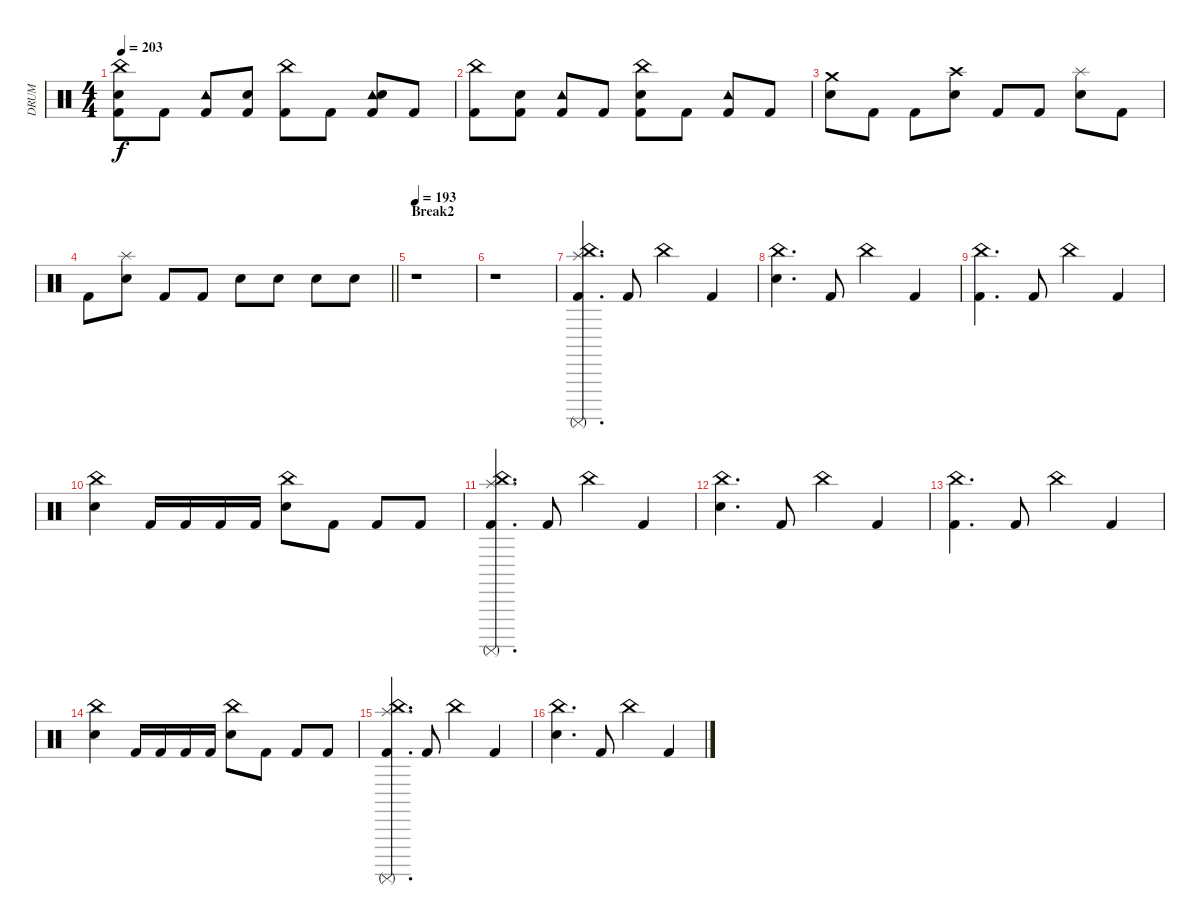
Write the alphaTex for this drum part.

\track ("DRUM" "DRUM") {instrument percussion bank 102}
\staff {score}
\articulation defaults
\ts (4 4)
\tempo 203
\clef neutral
\ks c
("China (hit)" "Electric Snare (hit)" "Kick (hit) 2").8{dy f} "Kick (hit) 2".8 ("Tambourine (hit)" "Kick (hit) 2").8 ("Electric Snare (hit)" "Kick (hit) 2").8 ("China (hit)" "Kick (hit) 2").8 "Kick (hit) 2".8 ("Tambourine (hit)" "Electric Snare (hit)" "Kick (hit) 2").8 "Kick (hit) 2".8 |
("China (hit)" "Kick (hit) 2").8 ("Electric Snare (hit)" "Kick (hit) 2").8 ("Tambourine (hit)" "Kick (hit) 2").8 "Kick (hit) 2".8 ("China (hit)" "Electric Snare (hit)" "Kick (hit) 2").8 "Kick (hit) 2".8 ("Tambourine (hit)" "Kick (hit) 2").8 "Kick (hit) 2".8 |
("Crash medium (hit)" "Electric Snare (hit)").8 "Kick (hit) 2".8 "Kick (hit) 2".8 ("Crash high (hit)" "Electric Snare (hit)").8 "Kick (hit) 2".8 "Kick (hit) 2".8 ("Splash (hit)" "Electric Snare (hit)").8 "Kick (hit) 2".8 |
\barLineRight lightlight "Kick (hit) 2".8
("Splash (hit)" "Electric Snare (hit)").8 "Kick (hit) 2".8 "Kick (hit) 2".8 "Electric Snare (hit)".8 "Electric Snare (hit)".8 "Electric Snare (hit)".8 "Electric Snare (hit)".8 |
\section ("" "Break2")
\tempo 193
r.1 |
r.1 |
("China (hit)" "Splash (hit)" "Surdo (mute)" "Kick (hit) 2").4{d} "Kick (hit) 2".8 "China (hit)".4 "Kick (hit) 2".4 |
("China (hit)" "Electric Snare (hit)").4{d} "Kick (hit) 2".8 "China (hit)".4 "Kick (hit) 2".4 |
("China (hit)" "Kick (hit) 2").4{d} "Kick (hit) 2".8 "China (hit)".4 "Kick (hit) 2".4 |
("China (hit)" "Electric Snare (hit)").4 "Kick (hit) 2".16 "Kick (hit) 2".16 "Kick (hit) 2".16 "Kick (hit) 2".16 ("China (hit)" "Electric Snare (hit)").8 "Kick (hit) 2".8 "Kick (hit) 2".8 "Kick (hit) 2".8 |
("China (hit)" "Splash (hit)" "Surdo (mute)" "Kick (hit) 2").4{d} "Kick (hit) 2".8 "China (hit)".4 "Kick (hit) 2".4 |
("China (hit)" "Electric Snare (hit)").4{d} "Kick (hit) 2".8 "China (hit)".4 "Kick (hit) 2".4 |
("China (hit)" "Kick (hit) 2").4{d} "Kick (hit) 2".8 "China (hit)".4 "Kick (hit) 2".4 |
("China (hit)" "Electric Snare (hit)").4 "Kick (hit) 2".16 "Kick (hit) 2".16 "Kick (hit) 2".16 "Kick (hit) 2".16 ("China (hit)" "Electric Snare (hit)").8 "Kick (hit) 2".8 "Kick (hit) 2".8 "Kick (hit) 2".8 |
("China (hit)" "Splash (hit)" "Surdo (mute)" "Kick (hit) 2").4{d} "Kick (hit) 2".8 "China (hit)".4 "Kick (hit) 2".4 |
("China (hit)" "Electric Snare (hit)").4{d} "Kick (hit) 2".8 "China (hit)".4 "Kick (hit) 2".4
